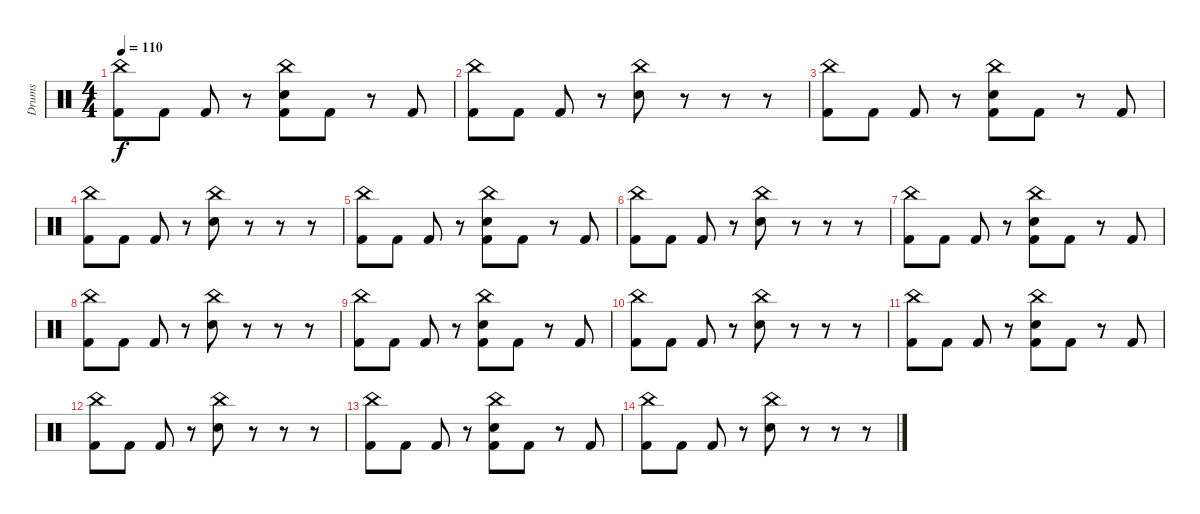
\track ("Drums" "Drums") {instrument percussion}
\staff {score}
\articulation defaults
\ts (4 4)
\tempo 110
\clef neutral
\ks c
("China (hit)" "Kick (hit) 2").8{dy f} "Kick (hit) 2".8 "Kick (hit) 2".8 r.8 ("China (hit)" "Snare (hit) 2" "Kick (hit) 2").8 "Kick (hit) 2".8 r.8 "Kick (hit) 2".8 |
("China (hit)" "Kick (hit) 2").8 "Kick (hit) 2".8 "Kick (hit) 2".8 r.8 ("China (hit)" "Snare (hit) 2").8 r.8 r.8 r.8 |
("China (hit)" "Kick (hit) 2").8 "Kick (hit) 2".8 "Kick (hit) 2".8 r.8 ("China (hit)" "Snare (hit) 2" "Kick (hit) 2").8 "Kick (hit) 2".8 r.8 "Kick (hit) 2".8 |
("China (hit)" "Kick (hit) 2").8 "Kick (hit) 2".8 "Kick (hit) 2".8 r.8 ("China (hit)" "Snare (hit) 2").8 r.8 r.8 r.8 |
("China (hit)" "Kick (hit) 2").8 "Kick (hit) 2".8 "Kick (hit) 2".8 r.8 ("China (hit)" "Snare (hit) 2" "Kick (hit) 2").8 "Kick (hit) 2".8 r.8 "Kick (hit) 2".8 |
("China (hit)" "Kick (hit) 2").8 "Kick (hit) 2".8 "Kick (hit) 2".8 r.8 ("China (hit)" "Snare (hit) 2").8 r.8 r.8 r.8 |
("China (hit)" "Kick (hit) 2").8 "Kick (hit) 2".8 "Kick (hit) 2".8 r.8 ("China (hit)" "Snare (hit) 2" "Kick (hit) 2").8 "Kick (hit) 2".8 r.8 "Kick (hit) 2".8 |
("China (hit)" "Kick (hit) 2").8 "Kick (hit) 2".8 "Kick (hit) 2".8 r.8 ("China (hit)" "Snare (hit) 2").8 r.8 r.8 r.8 |
("China (hit)" "Kick (hit) 2").8 "Kick (hit) 2".8 "Kick (hit) 2".8 r.8 ("China (hit)" "Snare (hit) 2" "Kick (hit) 2").8 "Kick (hit) 2".8 r.8 "Kick (hit) 2".8 |
("China (hit)" "Kick (hit) 2").8 "Kick (hit) 2".8 "Kick (hit) 2".8 r.8 ("China (hit)" "Snare (hit) 2").8 r.8 r.8 r.8 |
("China (hit)" "Kick (hit) 2").8 "Kick (hit) 2".8 "Kick (hit) 2".8 r.8 ("China (hit)" "Snare (hit) 2" "Kick (hit) 2").8 "Kick (hit) 2".8 r.8 "Kick (hit) 2".8 |
("China (hit)" "Kick (hit) 2").8 "Kick (hit) 2".8 "Kick (hit) 2".8 r.8 ("China (hit)" "Snare (hit) 2").8 r.8 r.8 r.8 |
("China (hit)" "Kick (hit) 2").8 "Kick (hit) 2".8 "Kick (hit) 2".8 r.8 ("China (hit)" "Snare (hit) 2" "Kick (hit) 2").8 "Kick (hit) 2".8 r.8 "Kick (hit) 2".8 |
("China (hit)" "Kick (hit) 2").8 "Kick (hit) 2".8 "Kick (hit) 2".8 r.8 ("China (hit)" "Snare (hit) 2").8 r.8 r.8 r.8
